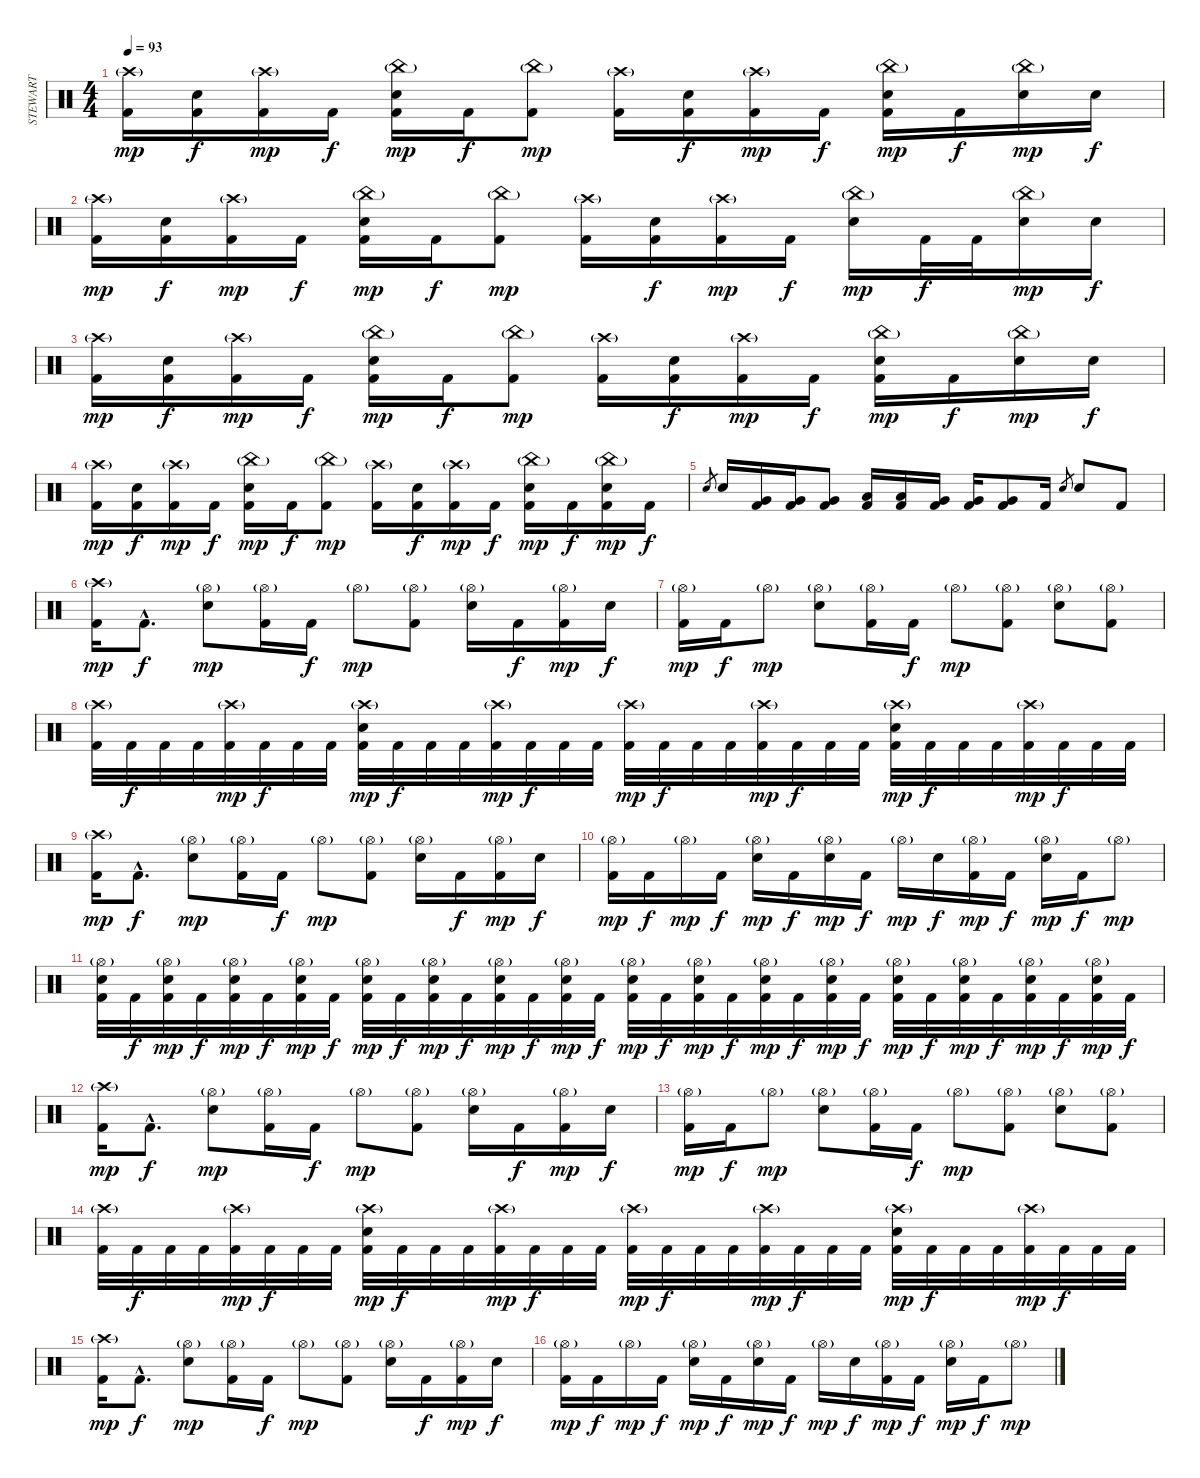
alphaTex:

\track ("STEWART" "STEWART") {instrument percussion}
\staff {score}
\articulation defaults
\ts (4 4)
\tempo 93
\clef neutral
\ks c
("Crash high (hit)"{g} "Kick (hit) 2").16{dy mp} ("Electric Snare (hit)" "Kick (hit) 2").16{dy f} ("Crash high (hit)"{g} "Kick (hit) 2").16{dy mp} "Kick (hit) 2".16{dy f} ("China (hit)"{g} "Electric Snare (hit)" "Kick (hit) 2").16{dy mp} "Kick (hit) 2".16{dy f} ("China (hit)"{g} "Kick (hit) 2").8{dy mp} ("Crash high (hit)"{g} "Kick (hit) 2").16 ("Electric Snare (hit)" "Kick (hit) 2").16{dy f} ("Crash high (hit)"{g} "Kick (hit) 2").16{dy mp} "Kick (hit) 2".16{dy f} ("China (hit)"{g} "Electric Snare (hit)" "Kick (hit) 2").16{dy mp} "Kick (hit) 2".16{dy f} ("China (hit)"{g} "Electric Snare (hit)").16{dy mp} "Electric Snare (hit)".16{dy f} |
("Crash high (hit)"{g} "Kick (hit) 2").16{dy mp} ("Electric Snare (hit)" "Kick (hit) 2").16{dy f} ("Crash high (hit)"{g} "Kick (hit) 2").16{dy mp} "Kick (hit) 2".16{dy f} ("China (hit)"{g} "Electric Snare (hit)" "Kick (hit) 2").16{dy mp} "Kick (hit) 2".16{dy f} ("China (hit)"{g} "Kick (hit) 2").8{dy mp} ("Crash high (hit)"{g} "Kick (hit) 2").16 ("Electric Snare (hit)" "Kick (hit) 2").16{dy f} ("Crash high (hit)"{g} "Kick (hit) 2").16{dy mp} "Kick (hit) 2".16{dy f} ("China (hit)"{g} "Electric Snare (hit)").16{dy mp} "Kick (hit) 2".32{dy f} "Kick (hit) 2".32 ("China (hit)"{g} "Electric Snare (hit)").16{dy mp} "Electric Snare (hit)".16{dy f} |
("Crash high (hit)"{g} "Kick (hit) 2").16{dy mp} ("Electric Snare (hit)" "Kick (hit) 2").16{dy f} ("Crash high (hit)"{g} "Kick (hit) 2").16{dy mp} "Kick (hit) 2".16{dy f} ("China (hit)"{g} "Electric Snare (hit)" "Kick (hit) 2").16{dy mp} "Kick (hit) 2".16{dy f} ("China (hit)"{g} "Kick (hit) 2").8{dy mp} ("Crash high (hit)"{g} "Kick (hit) 2").16 ("Electric Snare (hit)" "Kick (hit) 2").16{dy f} ("Crash high (hit)"{g} "Kick (hit) 2").16{dy mp} "Kick (hit) 2".16{dy f} ("China (hit)"{g} "Electric Snare (hit)" "Kick (hit) 2").16{dy mp} "Kick (hit) 2".16{dy f} ("China (hit)"{g} "Electric Snare (hit)").16{dy mp} "Electric Snare (hit)".16{dy f} |
("Crash high (hit)"{g} "Kick (hit) 2").16{dy mp} ("Electric Snare (hit)" "Kick (hit) 2").16{dy f} ("Crash high (hit)"{g} "Kick (hit) 2").16{dy mp} "Kick (hit) 2".16{dy f} ("China (hit)"{g} "Electric Snare (hit)" "Kick (hit) 2").16{dy mp} "Kick (hit) 2".16{dy f} ("China (hit)"{g} "Kick (hit) 2").8{dy mp} ("Crash high (hit)"{g} "Kick (hit) 2").16 ("Electric Snare (hit)" "Kick (hit) 2").16{dy f} ("Crash high (hit)"{g} "Kick (hit) 2").16{dy mp} "Kick (hit) 2".16{dy f} ("China (hit)"{g} "Electric Snare (hit)" "Kick (hit) 2").16{dy mp} "Kick (hit) 2".16{dy f} ("China (hit)"{g} "Electric Snare (hit)" "Kick (hit) 2").16{dy mp} "Kick (hit) 2".16{dy f} |
"Electric Snare (hit)".8{gr} "Electric Snare (hit)".16 ("Very Low Tom (hit)" "Kick (hit) 2").16 ("Very Low Tom (hit)" "Kick (hit) 2").16 ("Very Low Tom (hit)" "Kick (hit) 2").8 ("Low Tom (hit)" "Kick (hit) 2").16 ("Low Tom (hit)" "Kick (hit) 2").16 ("Very Low Tom (hit)" "Kick (hit) 2").16 ("Very Low Tom (hit)" "Kick (hit) 2").16 ("Very Low Tom (hit)" "Kick (hit) 2").8 "Kick (hit) 2".16 "Electric Snare (hit)".8{gr} "Electric Snare (hit)".8 "Kick (hit) 2".8 |
("Crash high (hit)"{g} "Kick (hit) 2").16{dy mp} "Kick (hit) 2"{hac}.8{d dy f} ("Hi-Hat (open)"{g} "Electric Snare (hit)").8{dy mp} ("Hi-Hat (open)"{g} "Kick (hit) 2").16 "Kick (hit) 2".16{dy f} "Hi-Hat (open)"{g}.8{dy mp} ("Hi-Hat (open)"{g} "Kick (hit) 2").8 ("Hi-Hat (open)"{g} "Electric Snare (hit)").16 "Kick (hit) 2".16{dy f} ("Hi-Hat (open)"{g} "Kick (hit) 2").16{dy mp} "Electric Snare (hit)".16{dy f} |
("Hi-Hat (open)"{g} "Kick (hit) 2").16{dy mp} "Kick (hit) 2".16{dy f} "Hi-Hat (open)"{g}.8{dy mp} ("Hi-Hat (open)"{g} "Electric Snare (hit)").8 ("Hi-Hat (open)"{g} "Kick (hit) 2").16 "Kick (hit) 2".16{dy f} "Hi-Hat (open)"{g}.8{dy mp} ("Hi-Hat (open)"{g} "Kick (hit) 2").8 ("Hi-Hat (open)"{g} "Electric Snare (hit)").8 ("Hi-Hat (open)"{g} "Kick (hit) 2").8 |
("Crash high (hit)"{g} "Kick (hit) 2").32 "Kick (hit) 2".32{dy f} "Kick (hit) 2".32 "Kick (hit) 2".32 ("Crash high (hit)"{g} "Kick (hit) 2").32{dy mp} "Kick (hit) 2".32{dy f} "Kick (hit) 2".32 "Kick (hit) 2".32 ("Crash high (hit)"{g} "Electric Snare (hit)" "Kick (hit) 2").32{dy mp} "Kick (hit) 2".32{dy f} "Kick (hit) 2".32 "Kick (hit) 2".32 ("Crash high (hit)"{g} "Kick (hit) 2").32{dy mp} "Kick (hit) 2".32{dy f} "Kick (hit) 2".32 "Kick (hit) 2".32 ("Crash high (hit)"{g} "Kick (hit) 2").32{dy mp} "Kick (hit) 2".32{dy f} "Kick (hit) 2".32 "Kick (hit) 2".32 ("Crash high (hit)"{g} "Kick (hit) 2").32{dy mp} "Kick (hit) 2".32{dy f} "Kick (hit) 2".32 "Kick (hit) 2".32 ("Crash high (hit)"{g} "Electric Snare (hit)" "Kick (hit) 2").32{dy mp} "Kick (hit) 2".32{dy f} "Kick (hit) 2".32 "Kick (hit) 2".32 ("Crash high (hit)"{g} "Kick (hit) 2").32{dy mp} "Kick (hit) 2".32{dy f} "Kick (hit) 2".32 "Kick (hit) 2".32 |
("Crash high (hit)"{g} "Kick (hit) 2").16{dy mp} "Kick (hit) 2"{hac}.8{d dy f} ("Hi-Hat (open)"{g} "Electric Snare (hit)").8{dy mp} ("Hi-Hat (open)"{g} "Kick (hit) 2").16 "Kick (hit) 2".16{dy f} "Hi-Hat (open)"{g}.8{dy mp} ("Hi-Hat (open)"{g} "Kick (hit) 2").8 ("Hi-Hat (open)"{g} "Electric Snare (hit)").16 "Kick (hit) 2".16{dy f} ("Hi-Hat (open)"{g} "Kick (hit) 2").16{dy mp} "Electric Snare (hit)".16{dy f} |
("Hi-Hat (open)"{g} "Kick (hit) 2").16{dy mp} "Kick (hit) 2".16{dy f} "Hi-Hat (open)"{g}.16{dy mp} "Kick (hit) 2".16{dy f} ("Hi-Hat (open)"{g} "Electric Snare (hit)").16{dy mp} "Kick (hit) 2".16{dy f} ("Hi-Hat (open)"{g} "Electric Snare (hit)").16{dy mp} "Kick (hit) 2".16{dy f} "Hi-Hat (open)"{g}.16{dy mp} "Electric Snare (hit)".16{dy f} ("Hi-Hat (open)"{g} "Kick (hit) 2").16{dy mp} "Kick (hit) 2".16{dy f} ("Hi-Hat (open)"{g} "Electric Snare (hit)").16{dy mp} "Kick (hit) 2".16{dy f} "Hi-Hat (open)"{g}.8{dy mp} |
("Hi-Hat (open)"{g} "Electric Snare (hit)" "Kick (hit) 2").32 "Kick (hit) 2".32{dy f} ("Hi-Hat (open)"{g} "Electric Snare (hit)" "Kick (hit) 2").32{dy mp} "Kick (hit) 2".32{dy f} ("Hi-Hat (open)"{g} "Electric Snare (hit)" "Kick (hit) 2").32{dy mp} "Kick (hit) 2".32{dy f} ("Hi-Hat (open)"{g} "Electric Snare (hit)" "Kick (hit) 2").32{dy mp} "Kick (hit) 2".32{dy f} ("Hi-Hat (open)"{g} "Electric Snare (hit)" "Kick (hit) 2").32{dy mp} "Kick (hit) 2".32{dy f} ("Hi-Hat (open)"{g} "Electric Snare (hit)" "Kick (hit) 2").32{dy mp} "Kick (hit) 2".32{dy f} ("Hi-Hat (open)"{g} "Electric Snare (hit)" "Kick (hit) 2").32{dy mp} "Kick (hit) 2".32{dy f} ("Hi-Hat (open)"{g} "Electric Snare (hit)" "Kick (hit) 2").32{dy mp} "Kick (hit) 2".32{dy f} ("Hi-Hat (open)"{g} "Electric Snare (hit)" "Kick (hit) 2").32{dy mp} "Kick (hit) 2".32{dy f} ("Hi-Hat (open)"{g} "Electric Snare (hit)" "Kick (hit) 2").32{dy mp} "Kick (hit) 2".32{dy f} ("Hi-Hat (open)"{g} "Electric Snare (hit)" "Kick (hit) 2").32{dy mp} "Kick (hit) 2".32{dy f} ("Hi-Hat (open)"{g} "Electric Snare (hit)" "Kick (hit) 2").32{dy mp} "Kick (hit) 2".32{dy f} ("Hi-Hat (open)"{g} "Electric Snare (hit)" "Kick (hit) 2").32{dy mp} "Kick (hit) 2".32{dy f} ("Hi-Hat (open)"{g} "Electric Snare (hit)" "Kick (hit) 2").32{dy mp} "Kick (hit) 2".32{dy f} ("Hi-Hat (open)"{g} "Electric Snare (hit)" "Kick (hit) 2").32{dy mp} "Kick (hit) 2".32{dy f} ("Hi-Hat (open)"{g} "Electric Snare (hit)" "Kick (hit) 2").32{dy mp} "Kick (hit) 2".32{dy f} |
("Crash high (hit)"{g} "Kick (hit) 2").16{dy mp} "Kick (hit) 2"{hac}.8{d dy f} ("Hi-Hat (open)"{g} "Electric Snare (hit)").8{dy mp} ("Hi-Hat (open)"{g} "Kick (hit) 2").16 "Kick (hit) 2".16{dy f} "Hi-Hat (open)"{g}.8{dy mp} ("Hi-Hat (open)"{g} "Kick (hit) 2").8 ("Hi-Hat (open)"{g} "Electric Snare (hit)").16 "Kick (hit) 2".16{dy f} ("Hi-Hat (open)"{g} "Kick (hit) 2").16{dy mp} "Electric Snare (hit)".16{dy f} |
("Hi-Hat (open)"{g} "Kick (hit) 2").16{dy mp} "Kick (hit) 2".16{dy f} "Hi-Hat (open)"{g}.8{dy mp} ("Hi-Hat (open)"{g} "Electric Snare (hit)").8 ("Hi-Hat (open)"{g} "Kick (hit) 2").16 "Kick (hit) 2".16{dy f} "Hi-Hat (open)"{g}.8{dy mp} ("Hi-Hat (open)"{g} "Kick (hit) 2").8 ("Hi-Hat (open)"{g} "Electric Snare (hit)").8 ("Hi-Hat (open)"{g} "Kick (hit) 2").8 |
("Crash high (hit)"{g} "Kick (hit) 2").32 "Kick (hit) 2".32{dy f} "Kick (hit) 2".32 "Kick (hit) 2".32 ("Crash high (hit)"{g} "Kick (hit) 2").32{dy mp} "Kick (hit) 2".32{dy f} "Kick (hit) 2".32 "Kick (hit) 2".32 ("Crash high (hit)"{g} "Electric Snare (hit)" "Kick (hit) 2").32{dy mp} "Kick (hit) 2".32{dy f} "Kick (hit) 2".32 "Kick (hit) 2".32 ("Crash high (hit)"{g} "Kick (hit) 2").32{dy mp} "Kick (hit) 2".32{dy f} "Kick (hit) 2".32 "Kick (hit) 2".32 ("Crash high (hit)"{g} "Kick (hit) 2").32{dy mp} "Kick (hit) 2".32{dy f} "Kick (hit) 2".32 "Kick (hit) 2".32 ("Crash high (hit)"{g} "Kick (hit) 2").32{dy mp} "Kick (hit) 2".32{dy f} "Kick (hit) 2".32 "Kick (hit) 2".32 ("Crash high (hit)"{g} "Electric Snare (hit)" "Kick (hit) 2").32{dy mp} "Kick (hit) 2".32{dy f} "Kick (hit) 2".32 "Kick (hit) 2".32 ("Crash high (hit)"{g} "Kick (hit) 2").32{dy mp} "Kick (hit) 2".32{dy f} "Kick (hit) 2".32 "Kick (hit) 2".32 |
("Crash high (hit)"{g} "Kick (hit) 2").16{dy mp} "Kick (hit) 2"{hac}.8{d dy f} ("Hi-Hat (open)"{g} "Electric Snare (hit)").8{dy mp} ("Hi-Hat (open)"{g} "Kick (hit) 2").16 "Kick (hit) 2".16{dy f} "Hi-Hat (open)"{g}.8{dy mp} ("Hi-Hat (open)"{g} "Kick (hit) 2").8 ("Hi-Hat (open)"{g} "Electric Snare (hit)").16 "Kick (hit) 2".16{dy f} ("Hi-Hat (open)"{g} "Kick (hit) 2").16{dy mp} "Electric Snare (hit)".16{dy f} |
("Hi-Hat (open)"{g} "Kick (hit) 2").16{dy mp} "Kick (hit) 2".16{dy f} "Hi-Hat (open)"{g}.16{dy mp} "Kick (hit) 2".16{dy f} ("Hi-Hat (open)"{g} "Electric Snare (hit)").16{dy mp} "Kick (hit) 2".16{dy f} ("Hi-Hat (open)"{g} "Electric Snare (hit)").16{dy mp} "Kick (hit) 2".16{dy f} "Hi-Hat (open)"{g}.16{dy mp} "Electric Snare (hit)".16{dy f} ("Hi-Hat (open)"{g} "Kick (hit) 2").16{dy mp} "Kick (hit) 2".16{dy f} ("Hi-Hat (open)"{g} "Electric Snare (hit)").16{dy mp} "Kick (hit) 2".16{dy f} "Hi-Hat (open)"{g}.8{dy mp}
